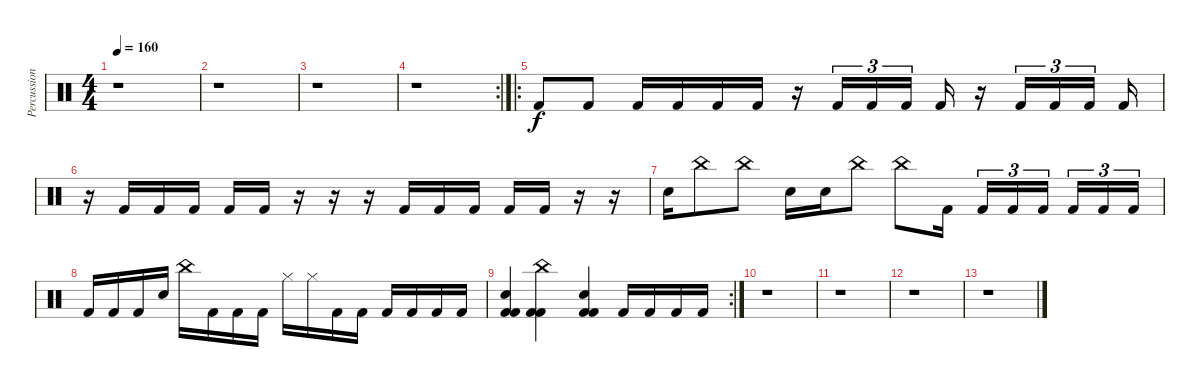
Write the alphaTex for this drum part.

\track ("Percussion" "Percussion") {instrument percussion}
\staff {score}
\articulation defaults
\ts (4 4)
\tempo 160
\clef neutral
\ks c
r.1{dy f} |
r.1 |
r.1 |
\rc 2
r.1 |
\ro "Kick (hit) 2".8 "Kick (hit) 2".8 "Kick (hit) 2".16 "Kick (hit) 2".16 "Kick (hit) 2".16 "Kick (hit) 2".16
r.16 "Kick (hit) 2".16{tu (3 2)} "Kick (hit) 2".16{tu (3 2)} "Kick (hit) 2".16{tu (3 2)} "Kick (hit) 2".16 r.16 "Kick (hit) 2".16{tu (3 2)} "Kick (hit) 2".16{tu (3 2)} "Kick (hit) 2".16{tu (3 2)} "Kick (hit) 2".16 |
r.16 "Kick (hit) 2".16 "Kick (hit) 2".16 "Kick (hit) 2".16 "Kick (hit) 2".16 "Kick (hit) 2".16 r.16 r.16 r.16 "Kick (hit) 2".16 "Kick (hit) 2".16 "Kick (hit) 2".16 "Kick (hit) 2".16 "Kick (hit) 2".16 r.16 r.16 |
"Snare (hit) 2".16 "China (hit)".8 "China (hit)".8 "Snare (hit) 2".16 "Snare (hit) 2".16 "China (hit)".8 "China (hit)".8 "Kick (hit) 2".16 "Kick (hit) 2".16{tu (3 2)} "Kick (hit) 2".16{tu (3 2)} "Kick (hit) 2".16{tu (3 2)} "Kick (hit) 2".16{tu (3 2)} "Kick (hit) 2".16{tu (3 2)} "Kick (hit) 2".16{tu (3 2)} |
"Kick (hit) 2".16 "Kick (hit) 2".16 "Kick (hit) 2".16 "Snare (hit) 2".16 "China (hit)".16 "Kick (hit) 2".16 "Kick (hit) 2".16 "Kick (hit) 2".16 "Hi-Hat (closed)".16 "Hi-Hat (closed)".16 "Kick (hit) 2".16 "Kick (hit) 2".16 "Kick (hit) 2".16 "Kick (hit) 2".16 "Kick (hit) 2".16 "Kick (hit) 2".16 |
\rc 2
("Snare (hit) 2" "Kick (hit) 2" "Kick (hit) 2").4 ("China (hit)" "Kick (hit) 2" "Kick (hit) 2").4 ("Snare (hit) 2" "Kick (hit) 2" "Kick (hit) 2").4 "Kick (hit) 2".16 "Kick (hit) 2".16 "Kick (hit) 2".16 "Kick (hit) 2".16 |
r.1 |
r.1 |
r.1 |
r.1
